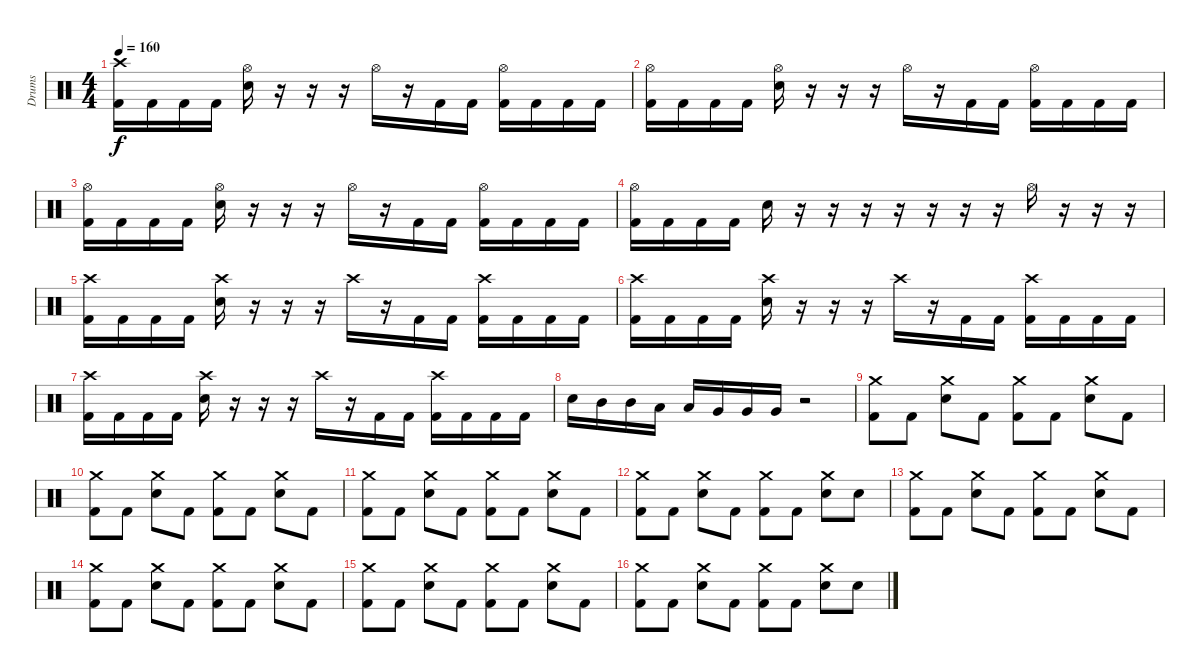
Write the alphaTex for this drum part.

\track ("Drums" "Drums") {instrument percussion}
\staff {score}
\articulation defaults
\ts (4 4)
\tempo 160
\clef neutral
\ks c
("Crash high (hit)" "Kick (hit) 2").16{dy f} "Kick (hit) 2".16 "Kick (hit) 2".16 "Kick (hit) 2".16 ("Hi-Hat (open)" "Electric Snare (hit)").16 r.16 r.16 r.16 "Hi-Hat (open)".16 r.16 "Kick (hit) 2".16 "Kick (hit) 2".16 ("Hi-Hat (open)" "Kick (hit) 2").16 "Kick (hit) 2".16 "Kick (hit) 2".16 "Kick (hit) 2".16 |
("Hi-Hat (open)" "Kick (hit) 2").16 "Kick (hit) 2".16 "Kick (hit) 2".16 "Kick (hit) 2".16 ("Hi-Hat (open)" "Electric Snare (hit)").16 r.16 r.16 r.16 "Hi-Hat (open)".16 r.16 "Kick (hit) 2".16 "Kick (hit) 2".16 ("Hi-Hat (open)" "Kick (hit) 2").16 "Kick (hit) 2".16 "Kick (hit) 2".16 "Kick (hit) 2".16 |
("Hi-Hat (open)" "Kick (hit) 2").16 "Kick (hit) 2".16 "Kick (hit) 2".16 "Kick (hit) 2".16 ("Hi-Hat (open)" "Electric Snare (hit)").16 r.16 r.16 r.16 "Hi-Hat (open)".16 r.16 "Kick (hit) 2".16 "Kick (hit) 2".16 ("Hi-Hat (open)" "Kick (hit) 2").16 "Kick (hit) 2".16 "Kick (hit) 2".16 "Kick (hit) 2".16 |
("Hi-Hat (open)" "Kick (hit) 2").16 "Kick (hit) 2".16 "Kick (hit) 2".16 "Kick (hit) 2".16 "Electric Snare (hit)".16 r.16 r.16 r.16 r.16 r.16 r.16 r.16 "Hi-Hat (open)".16 r.16 r.16 r.16 |
("Crash high (hit)" "Kick (hit) 2").16 "Kick (hit) 2".16 "Kick (hit) 2".16 "Kick (hit) 2".16 ("Crash high (hit)" "Electric Snare (hit)").16 r.16 r.16 r.16 "Crash high (hit)".16 r.16 "Kick (hit) 2".16 "Kick (hit) 2".16 ("Crash high (hit)" "Kick (hit) 2").16 "Kick (hit) 2".16 "Kick (hit) 2".16 "Kick (hit) 2".16 |
("Crash high (hit)" "Kick (hit) 2").16 "Kick (hit) 2".16 "Kick (hit) 2".16 "Kick (hit) 2".16 ("Crash high (hit)" "Electric Snare (hit)").16 r.16 r.16 r.16 "Crash high (hit)".16 r.16 "Kick (hit) 2".16 "Kick (hit) 2".16 ("Crash high (hit)" "Kick (hit) 2").16 "Kick (hit) 2".16 "Kick (hit) 2".16 "Kick (hit) 2".16 |
("Crash high (hit)" "Kick (hit) 2").16 "Kick (hit) 2".16 "Kick (hit) 2".16 "Kick (hit) 2".16 ("Crash high (hit)" "Electric Snare (hit)").16 r.16 r.16 r.16 "Crash high (hit)".16 r.16 "Kick (hit) 2".16 "Kick (hit) 2".16 ("Crash high (hit)" "Kick (hit) 2").16 "Kick (hit) 2".16 "Kick (hit) 2".16 "Kick (hit) 2".16 |
"Electric Snare (hit)".16 "Mid Tom (hit)".16 "Mid Tom (hit)".16 "Low Tom (hit)".16 "Low Tom (hit)".16 "Very Low Tom (hit)".16 "Very Low Tom (hit)".16 "Very Low Tom (hit)".16 r.2 |
("Crash medium (hit)" "Kick (hit) 2").8 "Kick (hit) 2".8 ("Crash medium (hit)" "Electric Snare (hit)").8 "Kick (hit) 2".8 ("Crash medium (hit)" "Kick (hit) 2").8 "Kick (hit) 2".8 ("Crash medium (hit)" "Electric Snare (hit)").8 "Kick (hit) 2".8 |
("Crash medium (hit)" "Kick (hit) 2").8 "Kick (hit) 2".8 ("Crash medium (hit)" "Electric Snare (hit)").8 "Kick (hit) 2".8 ("Crash medium (hit)" "Kick (hit) 2").8 "Kick (hit) 2".8 ("Crash medium (hit)" "Electric Snare (hit)").8 "Kick (hit) 2".8 |
("Crash medium (hit)" "Kick (hit) 2").8 "Kick (hit) 2".8 ("Crash medium (hit)" "Electric Snare (hit)").8 "Kick (hit) 2".8 ("Crash medium (hit)" "Kick (hit) 2").8 "Kick (hit) 2".8 ("Crash medium (hit)" "Electric Snare (hit)").8 "Kick (hit) 2".8 |
("Crash medium (hit)" "Kick (hit) 2").8 "Kick (hit) 2".8 ("Crash medium (hit)" "Electric Snare (hit)").8 "Kick (hit) 2".8 ("Crash medium (hit)" "Kick (hit) 2").8 "Kick (hit) 2".8 ("Crash medium (hit)" "Electric Snare (hit)").8 "Electric Snare (hit)".8 |
("Crash medium (hit)" "Kick (hit) 2").8 "Kick (hit) 2".8 ("Crash medium (hit)" "Electric Snare (hit)").8 "Kick (hit) 2".8 ("Crash medium (hit)" "Kick (hit) 2").8 "Kick (hit) 2".8 ("Crash medium (hit)" "Electric Snare (hit)").8 "Kick (hit) 2".8 |
("Crash medium (hit)" "Kick (hit) 2").8 "Kick (hit) 2".8 ("Crash medium (hit)" "Electric Snare (hit)").8 "Kick (hit) 2".8 ("Crash medium (hit)" "Kick (hit) 2").8 "Kick (hit) 2".8 ("Crash medium (hit)" "Electric Snare (hit)").8 "Kick (hit) 2".8 |
("Crash medium (hit)" "Kick (hit) 2").8 "Kick (hit) 2".8 ("Crash medium (hit)" "Electric Snare (hit)").8 "Kick (hit) 2".8 ("Crash medium (hit)" "Kick (hit) 2").8 "Kick (hit) 2".8 ("Crash medium (hit)" "Electric Snare (hit)").8 "Kick (hit) 2".8 |
("Crash medium (hit)" "Kick (hit) 2").8 "Kick (hit) 2".8 ("Crash medium (hit)" "Electric Snare (hit)").8 "Kick (hit) 2".8 ("Crash medium (hit)" "Kick (hit) 2").8 "Kick (hit) 2".8 ("Crash medium (hit)" "Electric Snare (hit)").8 "Electric Snare (hit)".8
